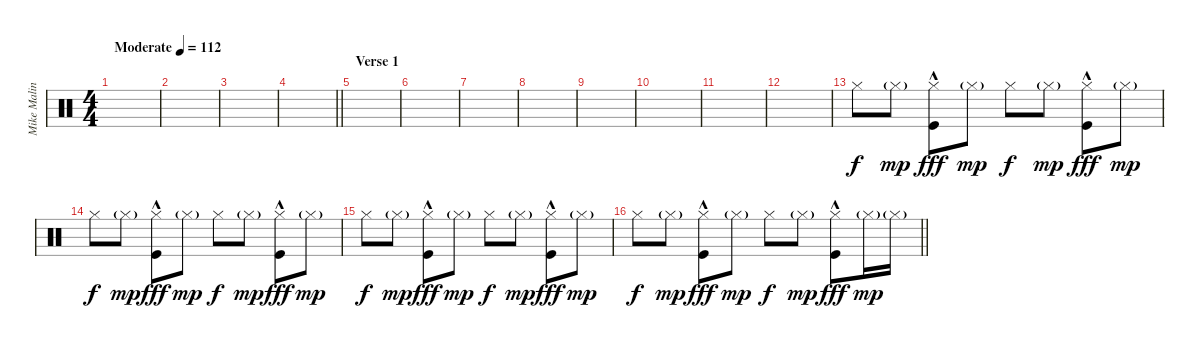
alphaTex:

\track ("Mike Malinin - Percussion" "Mike Malin") {instrument percussion}
\staff {score}
\articulation defaults
\ts (4 4)
\tempo (112 "Moderate")
\clef neutral
\ks c
|
|
|
\barLineRight lightlight
|
\section ("" "Verse 1")
|
|
|
|
|
|
|
|
"Hi-Hat (closed)".8 "Hi-Hat (closed)"{g}.8{dy mp} ("Hi-Hat (closed)" "Kick (hit)"{hac}).8{dy fff} "Hi-Hat (closed)"{g}.8{dy mp} "Hi-Hat (closed)".8{dy f} "Hi-Hat (closed)"{g}.8{dy mp} ("Hi-Hat (closed)" "Kick (hit)"{hac}).8{dy fff} "Hi-Hat (closed)"{g}.8{dy mp} |
"Hi-Hat (closed)".8{dy f} "Hi-Hat (closed)"{g}.8{dy mp} ("Hi-Hat (closed)" "Kick (hit)"{hac}).8{dy fff} "Hi-Hat (closed)"{g}.8{dy mp} "Hi-Hat (closed)".8{dy f} "Hi-Hat (closed)"{g}.8{dy mp} ("Hi-Hat (closed)" "Kick (hit)"{hac}).8{dy fff} "Hi-Hat (closed)"{g}.8{dy mp} |
"Hi-Hat (closed)".8{dy f} "Hi-Hat (closed)"{g}.8{dy mp} ("Hi-Hat (closed)" "Kick (hit)"{hac}).8{dy fff} "Hi-Hat (closed)"{g}.8{dy mp} "Hi-Hat (closed)".8{dy f} "Hi-Hat (closed)"{g}.8{dy mp} ("Hi-Hat (closed)" "Kick (hit)"{hac}).8{dy fff} "Hi-Hat (closed)"{g}.8{dy mp} |
\barLineRight lightlight "Hi-Hat (closed)".8{dy f} "Hi-Hat (closed)"{g}.8{dy mp}
("Hi-Hat (closed)" "Kick (hit)"{hac}).8{dy fff} "Hi-Hat (closed)"{g}.8{dy mp} "Hi-Hat (closed)".8{dy f} "Hi-Hat (closed)"{g}.8{dy mp} ("Hi-Hat (closed)" "Kick (hit)"{hac}).8{dy fff} "Hi-Hat (closed)"{g}.16{dy mp} "Hi-Hat (closed)"{g}.16
